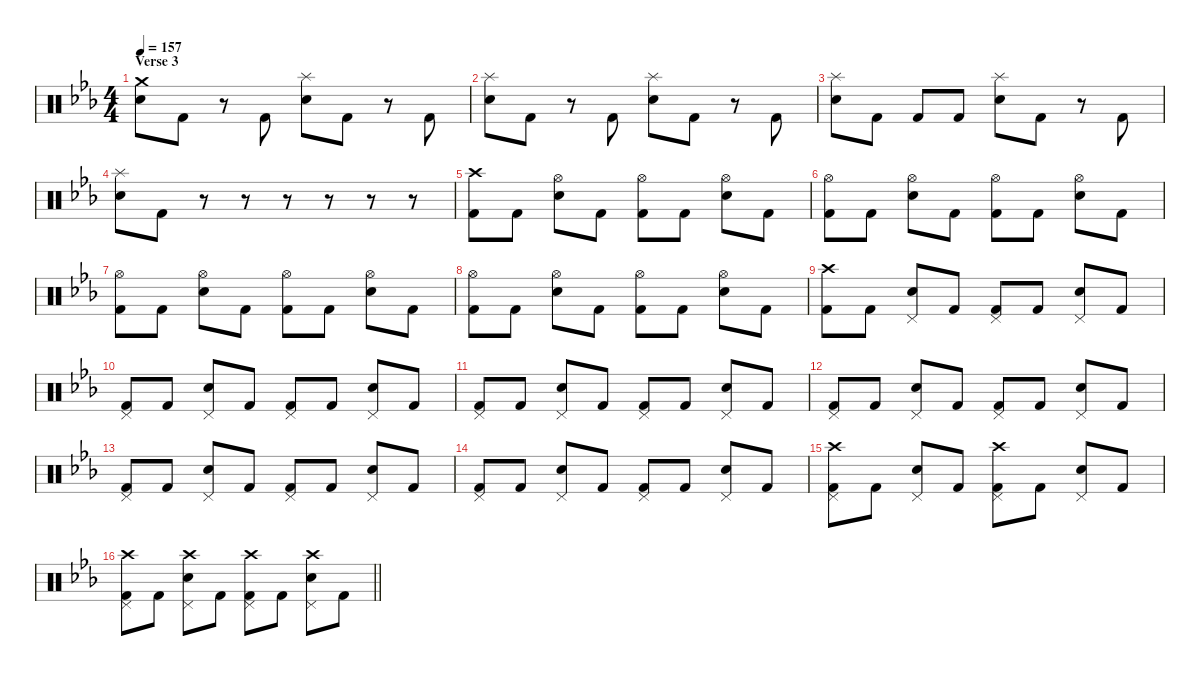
\defaultSystemsLayout 4
\hideDynamics
\bracketExtendMode nobrackets
\singleTrackTrackNamePolicy hidden
\multiTrackTrackNamePolicy hidden
\firstSystemTrackNameMode fullname
\otherSystemsTrackNameOrientation horizontal
\track ("Drums" "drm.") {instrument percussion}
\staff {score}
\articulation defaults
\ts (4 4)
\section ("" "Verse 3")
\tempo 157
\clef neutral
\ks cminor
("Crash medium (hit)"{acc forcenatural} "Snare (hit) 2"{acc forcenatural}).8{dy f beam Down} "Kick (hit) 2"{acc forcenatural}.8{beam Down} r.8{beam Down} "Kick (hit) 2"{acc forcenatural}.8{beam Up} ("Splash (hit)"{acc forcenatural} "Snare (hit) 2"{acc forcenatural}).8{dy fff beam Down} "Kick (hit) 2"{acc forcenatural}.8{dy f beam Down} r.8{beam Down} "Kick (hit) 2"{acc forcenatural}.8{beam Up} |
("Splash (hit)"{acc forcenatural} "Snare (hit) 2"{acc forcenatural}).8{dy fff beam Down} "Kick (hit) 2"{acc forcenatural}.8{dy f beam Down} r.8{beam Down} "Kick (hit) 2"{acc forcenatural}.8{beam Up} ("Splash (hit)"{acc forcenatural} "Snare (hit) 2"{acc forcenatural}).8{dy fff beam Down} "Kick (hit) 2"{acc forcenatural}.8{dy f beam Down} r.8{beam Down} "Kick (hit) 2"{acc forcenatural}.8{beam Up} |
("Splash (hit)"{acc forcenatural} "Snare (hit) 2"{acc forcenatural}).8{dy fff beam Down} "Kick (hit) 2"{acc forcenatural}.8{dy f beam Down} "Kick (hit) 2"{acc forcenatural}.8{beam Up} "Kick (hit) 2"{acc forcenatural}.8{beam Up} ("Splash (hit)"{acc forcenatural} "Snare (hit) 2"{acc forcenatural}).8{dy fff beam Down} "Kick (hit) 2"{acc forcenatural}.8{dy f beam Down} r.8{beam Down} "Kick (hit) 2"{acc forcenatural}.8{beam Up} |
("Splash (hit)"{acc forcenatural} "Snare (hit) 2"{acc forcenatural}).8{dy fff beam Down} "Kick (hit) 2"{acc forcenatural}.8{dy f beam Down} r.8{beam Down} r.8{beam Down} r.8{beam Down} r.8{beam Down} r.8{beam Down} r.8{beam Down} |
("Crash high (hit)"{acc forcenatural} "Kick (hit) 2"{acc forcenatural}).8{beam Down} "Kick (hit) 2"{acc forcenatural}.8{beam Down} ("Hi-Hat (open)"{acc forcenatural} "Snare (hit) 2"{acc forcenatural}).8{beam Down} "Kick (hit) 2"{acc forcenatural}.8{beam Down} ("Hi-Hat (open)"{acc forcenatural} "Kick (hit) 2"{acc forcenatural}).8{beam Down} "Kick (hit) 2"{acc forcenatural}.8{beam Down} ("Hi-Hat (open)"{acc forcenatural} "Snare (hit) 2"{acc forcenatural}).8{beam Down} "Kick (hit) 2"{acc forcenatural}.8{beam Down} |
("Hi-Hat (open)"{acc forcenatural} "Kick (hit) 2"{acc forcenatural}).8{beam Down} "Kick (hit) 2"{acc forcenatural}.8{beam Down} ("Hi-Hat (open)"{acc forcenatural} "Snare (hit) 2"{acc forcenatural}).8{beam Down} "Kick (hit) 2"{acc forcenatural}.8{beam Down} ("Hi-Hat (open)"{acc forcenatural} "Kick (hit) 2"{acc forcenatural}).8{beam Down} "Kick (hit) 2"{acc forcenatural}.8{beam Down} ("Hi-Hat (open)"{acc forcenatural} "Snare (hit) 2"{acc forcenatural}).8{beam Down} "Kick (hit) 2"{acc forcenatural}.8{beam Down} |
("Hi-Hat (open)"{acc forcenatural} "Kick (hit) 2"{acc forcenatural}).8{beam Down} "Kick (hit) 2"{acc forcenatural}.8{beam Down} ("Hi-Hat (open)"{acc forcenatural} "Snare (hit) 2"{acc forcenatural}).8{beam Down} "Kick (hit) 2"{acc forcenatural}.8{beam Down} ("Hi-Hat (open)"{acc forcenatural} "Kick (hit) 2"{acc forcenatural}).8{beam Down} "Kick (hit) 2"{acc forcenatural}.8{beam Down} ("Hi-Hat (open)"{acc forcenatural} "Snare (hit) 2"{acc forcenatural}).8{beam Down} "Kick (hit) 2"{acc forcenatural}.8{beam Down} |
("Hi-Hat (open)"{acc forcenatural} "Kick (hit) 2"{acc forcenatural}).8{beam Down} "Kick (hit) 2"{acc forcenatural}.8{beam Down} ("Hi-Hat (open)"{acc forcenatural} "Snare (hit) 2"{acc forcenatural}).8{beam Down} "Kick (hit) 2"{acc forcenatural}.8{beam Down} ("Hi-Hat (open)"{acc forcenatural} "Kick (hit) 2"{acc forcenatural}).8{beam Down} "Kick (hit) 2"{acc forcenatural}.8{beam Down} ("Hi-Hat (open)"{acc forcenatural} "Snare (hit) 2"{acc forcenatural}).8{beam Down} "Kick (hit) 2"{acc forcenatural}.8{beam Down} |
("Crash high (hit)"{acc forcenatural} "Kick (hit) 2"{acc forcenatural}).8{beam Down} "Kick (hit) 2"{acc forcenatural}.8{beam Down} ("Pedal Hi-Hat (hit)"{acc forcenatural} "Snare (hit) 2"{acc forcenatural}).8{beam Up} "Kick (hit) 2"{acc forcenatural}.8{beam Up} ("Pedal Hi-Hat (hit)"{acc forcenatural} "Kick (hit) 2"{acc forcenatural}).8{beam Up} "Kick (hit) 2"{acc forcenatural}.8{beam Up} ("Pedal Hi-Hat (hit)"{acc forcenatural} "Snare (hit) 2"{acc forcenatural}).8{beam Up} "Kick (hit) 2"{acc forcenatural}.8{beam Up} |
("Pedal Hi-Hat (hit)"{acc forcenatural} "Kick (hit) 2"{acc forcenatural}).8{beam Up} "Kick (hit) 2"{acc forcenatural}.8{beam Up} ("Pedal Hi-Hat (hit)"{acc forcenatural} "Snare (hit) 2"{acc forcenatural}).8{beam Up} "Kick (hit) 2"{acc forcenatural}.8{beam Up} ("Pedal Hi-Hat (hit)"{acc forcenatural} "Kick (hit) 2"{acc forcenatural}).8{beam Up} "Kick (hit) 2"{acc forcenatural}.8{beam Up} ("Pedal Hi-Hat (hit)"{acc forcenatural} "Snare (hit) 2"{acc forcenatural}).8{beam Up} "Kick (hit) 2"{acc forcenatural}.8{beam Up} |
("Pedal Hi-Hat (hit)"{acc forcenatural} "Kick (hit) 2"{acc forcenatural}).8{beam Up} "Kick (hit) 2"{acc forcenatural}.8{beam Up} ("Pedal Hi-Hat (hit)"{acc forcenatural} "Snare (hit) 2"{acc forcenatural}).8{beam Up} "Kick (hit) 2"{acc forcenatural}.8{beam Up} ("Pedal Hi-Hat (hit)"{acc forcenatural} "Kick (hit) 2"{acc forcenatural}).8{beam Up} "Kick (hit) 2"{acc forcenatural}.8{beam Up} ("Pedal Hi-Hat (hit)"{acc forcenatural} "Snare (hit) 2"{acc forcenatural}).8{beam Up} "Kick (hit) 2"{acc forcenatural}.8{beam Up} |
("Pedal Hi-Hat (hit)"{acc forcenatural} "Kick (hit) 2"{acc forcenatural}).8{beam Up} "Kick (hit) 2"{acc forcenatural}.8{beam Up} ("Pedal Hi-Hat (hit)"{acc forcenatural} "Snare (hit) 2"{acc forcenatural}).8{beam Up} "Kick (hit) 2"{acc forcenatural}.8{beam Up} ("Pedal Hi-Hat (hit)"{acc forcenatural} "Kick (hit) 2"{acc forcenatural}).8{beam Up} "Kick (hit) 2"{acc forcenatural}.8{beam Up} ("Pedal Hi-Hat (hit)"{acc forcenatural} "Snare (hit) 2"{acc forcenatural}).8{beam Up} "Kick (hit) 2"{acc forcenatural}.8{beam Up} |
("Pedal Hi-Hat (hit)"{acc forcenatural} "Kick (hit) 2"{acc forcenatural}).8{beam Up} "Kick (hit) 2"{acc forcenatural}.8{beam Up} ("Pedal Hi-Hat (hit)"{acc forcenatural} "Snare (hit) 2"{acc forcenatural}).8{beam Up} "Kick (hit) 2"{acc forcenatural}.8{beam Up} ("Pedal Hi-Hat (hit)"{acc forcenatural} "Kick (hit) 2"{acc forcenatural}).8{beam Up} "Kick (hit) 2"{acc forcenatural}.8{beam Up} ("Pedal Hi-Hat (hit)"{acc forcenatural} "Snare (hit) 2"{acc forcenatural}).8{beam Up} "Kick (hit) 2"{acc forcenatural}.8{beam Up} |
("Pedal Hi-Hat (hit)"{acc forcenatural} "Kick (hit) 2"{acc forcenatural}).8{beam Up} "Kick (hit) 2"{acc forcenatural}.8{beam Up} ("Pedal Hi-Hat (hit)"{acc forcenatural} "Snare (hit) 2"{acc forcenatural}).8{beam Up} "Kick (hit) 2"{acc forcenatural}.8{beam Up} ("Pedal Hi-Hat (hit)"{acc forcenatural} "Kick (hit) 2"{acc forcenatural}).8{beam Up} "Kick (hit) 2"{acc forcenatural}.8{beam Up} ("Pedal Hi-Hat (hit)"{acc forcenatural} "Snare (hit) 2"{acc forcenatural}).8{beam Up} "Kick (hit) 2"{acc forcenatural}.8{beam Up} |
("Pedal Hi-Hat (hit)"{acc forcenatural} "Crash high (hit)"{acc forcenatural} "Kick (hit) 2"{acc forcenatural}).8{beam Down} "Kick (hit) 2"{acc forcenatural}.8{beam Down} ("Pedal Hi-Hat (hit)"{acc forcenatural} "Snare (hit) 2"{acc forcenatural}).8{beam Up} "Kick (hit) 2"{acc forcenatural}.8{beam Up} ("Pedal Hi-Hat (hit)"{acc forcenatural} "Crash high (hit)"{acc forcenatural} "Kick (hit) 2"{acc forcenatural}).8{beam Down} "Kick (hit) 2"{acc forcenatural}.8{beam Down} ("Pedal Hi-Hat (hit)"{acc forcenatural} "Snare (hit) 2"{acc forcenatural}).8{beam Up} "Kick (hit) 2"{acc forcenatural}.8{beam Up} |
\barLineRight lightlight
("Pedal Hi-Hat (hit)"{acc forcenatural} "Crash high (hit)"{acc forcenatural} "Kick (hit) 2"{acc forcenatural}).8{beam Down} "Kick (hit) 2"{acc forcenatural}.8{beam Down} ("Pedal Hi-Hat (hit)"{acc forcenatural} "Crash high (hit)"{acc forcenatural} "Snare (hit) 2"{acc forcenatural}).8{beam Down} "Kick (hit) 2"{acc forcenatural}.8{beam Down} ("Pedal Hi-Hat (hit)"{acc forcenatural} "Crash high (hit)"{acc forcenatural} "Kick (hit) 2"{acc forcenatural}).8{beam Down} "Kick (hit) 2"{acc forcenatural}.8{beam Down} ("Pedal Hi-Hat (hit)"{acc forcenatural} "Crash high (hit)"{acc forcenatural} "Snare (hit) 2"{acc forcenatural}).8{beam Down} "Kick (hit) 2"{acc forcenatural}.8{beam Down}
